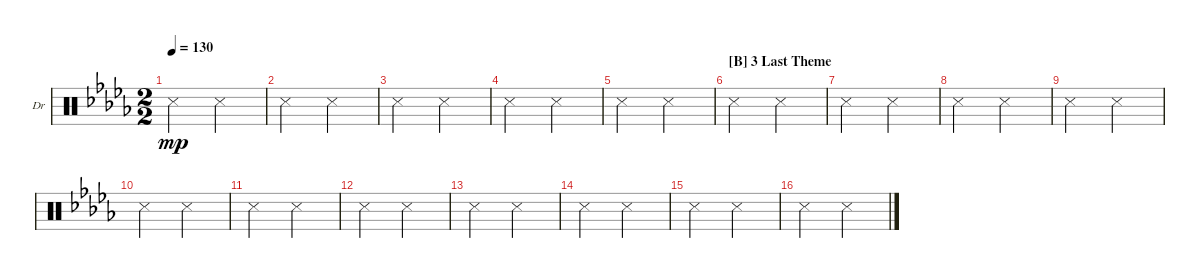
\defaultSystemsLayout 4
\bracketExtendMode nobrackets
\firstSystemTrackNameOrientation horizontal
\otherSystemsTrackNameOrientation horizontal
\chordDiagramsInScore
\track ("Drums" "Dr") {instrument percussion}
\staff {score}
\articulation defaults
\ts (2 2)
\tempo 130
\clef neutral
\ks db "Snare (side stick) 3".2{dy mp} "Snare (side stick) 3".2
|
"Snare (side stick) 3".2 "Snare (side stick) 3".2 |
"Snare (side stick) 3".2 "Snare (side stick) 3".2 |
"Snare (side stick) 3".2 "Snare (side stick) 3".2 |
"Snare (side stick) 3".2 "Snare (side stick) 3".2 |
\section ("B" "3 Last Theme")
"Snare (side stick) 3".2 "Snare (side stick) 3".2 |
"Snare (side stick) 3".2 "Snare (side stick) 3".2 |
"Snare (side stick) 3".2 "Snare (side stick) 3".2 |
"Snare (side stick) 3".2 "Snare (side stick) 3".2 |
"Snare (side stick) 3".2 "Snare (side stick) 3".2 |
"Snare (side stick) 3".2 "Snare (side stick) 3".2 |
"Snare (side stick) 3".2 "Snare (side stick) 3".2 |
"Snare (side stick) 3".2 "Snare (side stick) 3".2 |
"Snare (side stick) 3".2 "Snare (side stick) 3".2 |
"Snare (side stick) 3".2 "Snare (side stick) 3".2 |
"Snare (side stick) 3".2 "Snare (side stick) 3".2
